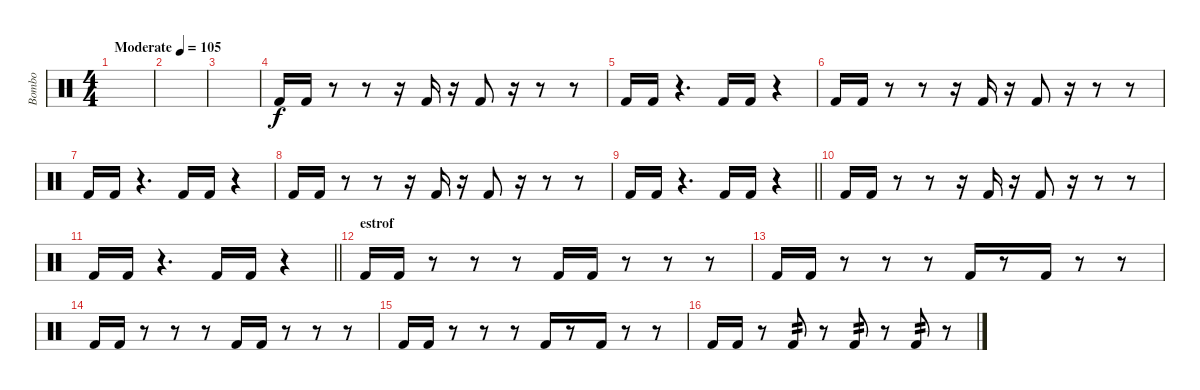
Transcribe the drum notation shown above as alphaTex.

\track ("Bombo" "Bombo") {instrument percussion}
\staff {score}
\articulation defaults
\ts (4 4)
\tempo (105 "Moderate")
\clef neutral
\ks c
|
|
|
"Kick (hit) 2".16 "Kick (hit) 2".16 r.8 r.8 r.16 "Kick (hit) 2".16 r.16 "Kick (hit) 2".8 r.16 r.8 r.8 |
"Kick (hit) 2".16 "Kick (hit) 2".16 r.4{d} "Kick (hit) 2".16 "Kick (hit) 2".16 r.4 |
"Kick (hit) 2".16 "Kick (hit) 2".16 r.8 r.8 r.16 "Kick (hit) 2".16 r.16 "Kick (hit) 2".8 r.16 r.8 r.8 |
"Kick (hit) 2".16 "Kick (hit) 2".16 r.4{d} "Kick (hit) 2".16 "Kick (hit) 2".16 r.4 |
"Kick (hit) 2".16 "Kick (hit) 2".16 r.8 r.8 r.16 "Kick (hit) 2".16 r.16 "Kick (hit) 2".8 r.16 r.8 r.8 |
\barLineRight lightlight "Kick (hit) 2".16 "Kick (hit) 2".16
r.4{d} "Kick (hit) 2".16 "Kick (hit) 2".16 r.4 |
"Kick (hit) 2".16 "Kick (hit) 2".16 r.8 r.8 r.16 "Kick (hit) 2".16 r.16 "Kick (hit) 2".8 r.16 r.8 r.8 |
\barLineRight lightlight "Kick (hit) 2".16 "Kick (hit) 2".16
r.4{d} "Kick (hit) 2".16 "Kick (hit) 2".16 r.4 |
\section ("" "estrof")
"Kick (hit) 2".16 "Kick (hit) 2".16 r.8 r.8 r.8 "Kick (hit) 2".16 "Kick (hit) 2".16 r.8 r.8 r.8 |
"Kick (hit) 2".16 "Kick (hit) 2".16 r.8 r.8 r.8 "Kick (hit) 2".16 r.8 "Kick (hit) 2".16 r.8 r.8 |
"Kick (hit) 2".16 "Kick (hit) 2".16 r.8 r.8 r.8 "Kick (hit) 2".16 "Kick (hit) 2".16 r.8 r.8 r.8 |
"Kick (hit) 2".16 "Kick (hit) 2".16 r.8 r.8 r.8 "Kick (hit) 2".16 r.8 "Kick (hit) 2".16 r.8 r.8 |
"Kick (hit) 2".16 "Kick (hit) 2".16 r.8 "Kick (hit) 2".8{tp 2} r.8 "Kick (hit) 2".8{tp 2} r.8 "Kick (hit) 2".8{tp 2} r.8
